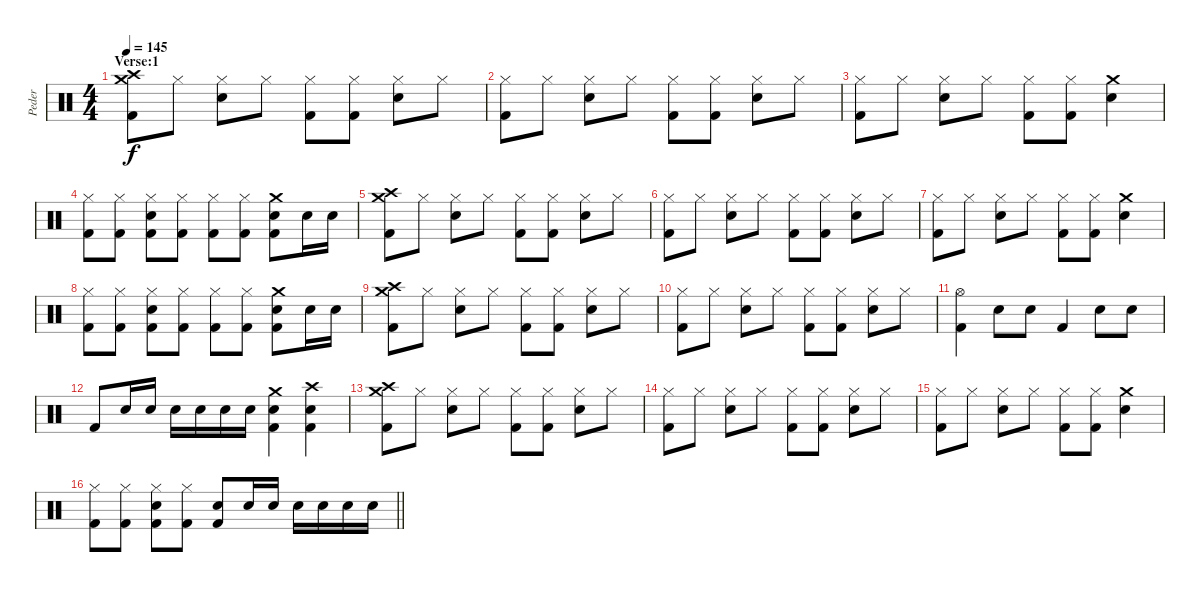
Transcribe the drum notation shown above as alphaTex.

\track ("Peder" "Peder") {instrument percussion}
\staff {score}
\articulation defaults
\ts (4 4)
\section ("" "Verse:1")
\tempo 145
\clef neutral
\ks c
("Crash medium (hit)" "Crash high (hit)" "Kick (hit) 2").8{dy f} "Hi-Hat (closed)".8 ("Hi-Hat (closed)" "Electric Snare (hit)").8 "Hi-Hat (closed)".8 ("Hi-Hat (closed)" "Kick (hit) 2").8 ("Hi-Hat (closed)" "Kick (hit) 2").8 ("Hi-Hat (closed)" "Electric Snare (hit)").8 "Hi-Hat (closed)".8 |
("Hi-Hat (closed)" "Kick (hit) 2").8 "Hi-Hat (closed)".8 ("Hi-Hat (closed)" "Electric Snare (hit)").8 "Hi-Hat (closed)".8 ("Hi-Hat (closed)" "Kick (hit) 2").8 ("Hi-Hat (closed)" "Kick (hit) 2").8 ("Hi-Hat (closed)" "Electric Snare (hit)").8 "Hi-Hat (closed)".8 |
("Hi-Hat (closed)" "Kick (hit) 2").8 "Hi-Hat (closed)".8 ("Hi-Hat (closed)" "Electric Snare (hit)").8 "Hi-Hat (closed)".8 ("Hi-Hat (closed)" "Kick (hit) 2").8 ("Hi-Hat (closed)" "Kick (hit) 2").8 ("Crash medium (hit)" "Electric Snare (hit)").4 |
("Hi-Hat (closed)" "Kick (hit) 2").8 ("Hi-Hat (closed)" "Kick (hit) 2").8 ("Hi-Hat (closed)" "Electric Snare (hit)" "Kick (hit) 2").8 ("Hi-Hat (closed)" "Kick (hit) 2").8 ("Hi-Hat (closed)" "Kick (hit) 2").8 ("Hi-Hat (closed)" "Kick (hit) 2").8 ("Crash medium (hit)" "Electric Snare (hit)" "Kick (hit) 2").8 "Electric Snare (hit)".16 "Electric Snare (hit)".16 |
("Crash medium (hit)" "Crash high (hit)" "Kick (hit) 2").8 "Hi-Hat (closed)".8 ("Hi-Hat (closed)" "Electric Snare (hit)").8 "Hi-Hat (closed)".8 ("Hi-Hat (closed)" "Kick (hit) 2").8 ("Hi-Hat (closed)" "Kick (hit) 2").8 ("Hi-Hat (closed)" "Electric Snare (hit)").8 "Hi-Hat (closed)".8 |
("Hi-Hat (closed)" "Kick (hit) 2").8 "Hi-Hat (closed)".8 ("Hi-Hat (closed)" "Electric Snare (hit)").8 "Hi-Hat (closed)".8 ("Hi-Hat (closed)" "Kick (hit) 2").8 ("Hi-Hat (closed)" "Kick (hit) 2").8 ("Hi-Hat (closed)" "Electric Snare (hit)").8 "Hi-Hat (closed)".8 |
("Hi-Hat (closed)" "Kick (hit) 2").8 "Hi-Hat (closed)".8 ("Hi-Hat (closed)" "Electric Snare (hit)").8 "Hi-Hat (closed)".8 ("Hi-Hat (closed)" "Kick (hit) 2").8 ("Hi-Hat (closed)" "Kick (hit) 2").8 ("Crash medium (hit)" "Electric Snare (hit)").4 |
("Hi-Hat (closed)" "Kick (hit) 2").8 ("Hi-Hat (closed)" "Kick (hit) 2").8 ("Hi-Hat (closed)" "Electric Snare (hit)" "Kick (hit) 2").8 ("Hi-Hat (closed)" "Kick (hit) 2").8 ("Hi-Hat (closed)" "Kick (hit) 2").8 ("Hi-Hat (closed)" "Kick (hit) 2").8 ("Crash medium (hit)" "Electric Snare (hit)" "Kick (hit) 2").8 "Electric Snare (hit)".16 "Electric Snare (hit)".16 |
("Crash medium (hit)" "Crash high (hit)" "Kick (hit) 2").8 "Hi-Hat (closed)".8 ("Hi-Hat (closed)" "Electric Snare (hit)").8 "Hi-Hat (closed)".8 ("Hi-Hat (closed)" "Kick (hit) 2").8 ("Hi-Hat (closed)" "Kick (hit) 2").8 ("Hi-Hat (closed)" "Electric Snare (hit)").8 "Hi-Hat (closed)".8 |
("Hi-Hat (closed)" "Kick (hit) 2").8 "Hi-Hat (closed)".8 ("Hi-Hat (closed)" "Electric Snare (hit)").8 "Hi-Hat (closed)".8 ("Hi-Hat (closed)" "Kick (hit) 2").8 ("Hi-Hat (closed)" "Kick (hit) 2").8 ("Hi-Hat (closed)" "Electric Snare (hit)").8 "Hi-Hat (closed)".8 |
("Hi-Hat (open)" "Kick (hit) 2").4 "Electric Snare (hit)".8 "Electric Snare (hit)".8 "Kick (hit) 2".4 "Electric Snare (hit)".8 "Electric Snare (hit)".8 |
"Kick (hit) 2".8 "Electric Snare (hit)".16 "Electric Snare (hit)".16 "Electric Snare (hit)".16 "Electric Snare (hit)".16 "Electric Snare (hit)".16 "Electric Snare (hit)".16 ("Crash medium (hit)" "Electric Snare (hit)" "Kick (hit) 2").4 ("Crash high (hit)" "Electric Snare (hit)" "Kick (hit) 2").4 |
("Crash medium (hit)" "Crash high (hit)" "Kick (hit) 2").8 "Hi-Hat (closed)".8 ("Hi-Hat (closed)" "Electric Snare (hit)").8 "Hi-Hat (closed)".8 ("Hi-Hat (closed)" "Kick (hit) 2").8 ("Hi-Hat (closed)" "Kick (hit) 2").8 ("Hi-Hat (closed)" "Electric Snare (hit)").8 "Hi-Hat (closed)".8 |
("Hi-Hat (closed)" "Kick (hit) 2").8 "Hi-Hat (closed)".8 ("Hi-Hat (closed)" "Electric Snare (hit)").8 "Hi-Hat (closed)".8 ("Hi-Hat (closed)" "Kick (hit) 2").8 ("Hi-Hat (closed)" "Kick (hit) 2").8 ("Hi-Hat (closed)" "Electric Snare (hit)").8 "Hi-Hat (closed)".8 |
("Hi-Hat (closed)" "Kick (hit) 2").8 "Hi-Hat (closed)".8 ("Hi-Hat (closed)" "Electric Snare (hit)").8 "Hi-Hat (closed)".8 ("Hi-Hat (closed)" "Kick (hit) 2").8 ("Hi-Hat (closed)" "Kick (hit) 2").8 ("Crash medium (hit)" "Electric Snare (hit)").4 |
\barLineRight lightlight
("Hi-Hat (closed)" "Kick (hit) 2").8 ("Hi-Hat (closed)" "Kick (hit) 2").8 ("Hi-Hat (closed)" "Electric Snare (hit)" "Kick (hit) 2").8 ("Hi-Hat (closed)" "Kick (hit) 2").8 ("Electric Snare (hit)" "Kick (hit) 2").8 "Electric Snare (hit)".16 "Electric Snare (hit)".16 "Electric Snare (hit)".16 "Electric Snare (hit)".16 "Electric Snare (hit)".16 "Electric Snare (hit)".16
